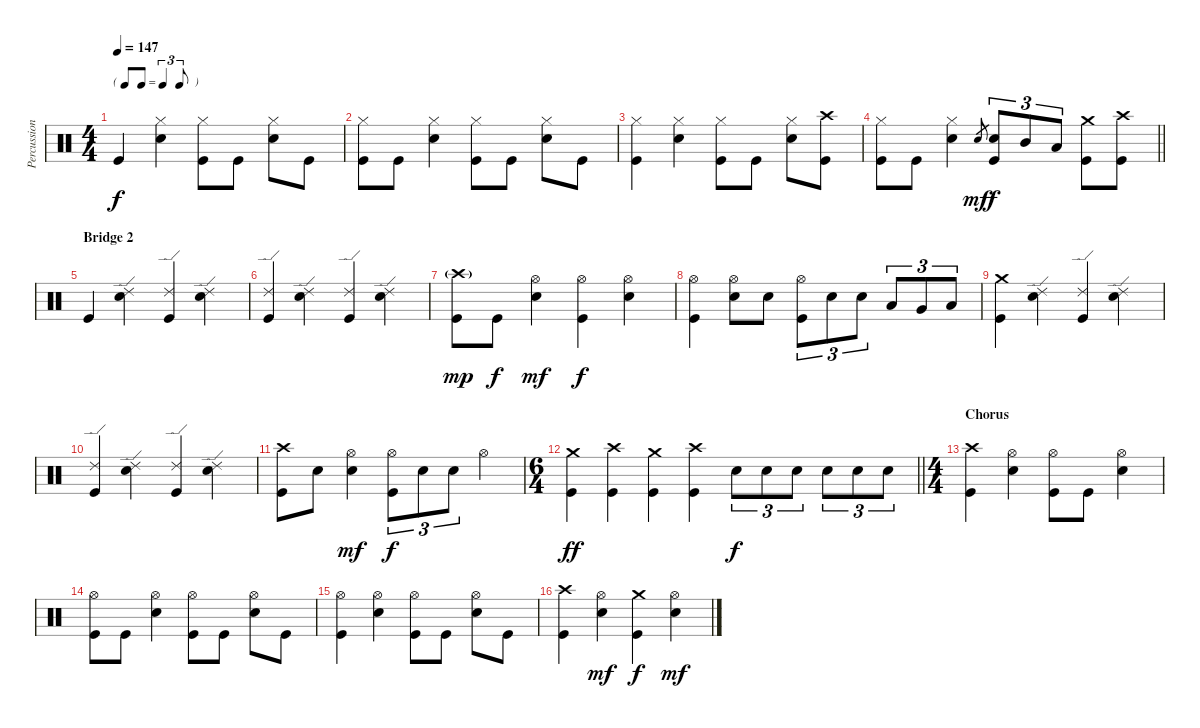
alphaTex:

\track ("Percussion" "Percussion") {instrument percussion}
\staff {score}
\articulation defaults
\ts (4 4)
\tf triplet8th
\tempo 147
\clef neutral
\ks c "Kick (hit)".4{dy f}
("Hi-Hat (closed)" "Snare (hit) 2").4 ("Kick (hit)" "Hi-Hat (closed)").8 "Kick (hit)".8 ("Hi-Hat (closed)" "Snare (hit) 2").8 "Kick (hit)".8 |
("Kick (hit)" "Hi-Hat (closed)").8 "Kick (hit)".8 ("Hi-Hat (closed)" "Snare (hit) 2").4 ("Kick (hit)" "Hi-Hat (closed)").8 "Kick (hit)".8 ("Hi-Hat (closed)" "Snare (hit) 2").8 "Kick (hit)".8 |
("Kick (hit)" "Hi-Hat (closed)").4 ("Hi-Hat (closed)" "Snare (hit) 2").4 ("Kick (hit)" "Hi-Hat (closed)").8 "Kick (hit)".8 ("Hi-Hat (closed)" "Snare (hit) 2").8 ("Kick (hit)" "Crash high (hit)").8 |
\barLineRight lightlight
("Kick (hit)" "Hi-Hat (closed)").8 "Kick (hit)".8 ("Hi-Hat (closed)" "Snare (hit) 2").4 "Snare (hit) 2".8{gr dy mf} ("Kick (hit)" "Snare (hit) 2").8{tu (3 2) dy f} "Mid Tom (hit)".8{tu (3 2)} "Low Tom (hit)".8{tu (3 2)} ("Kick (hit)" "Crash medium (hit)").8 ("Kick (hit)" "Crash high (hit)").8 |
\section ("" "Bridge 2")
"Kick (hit)".4 ("Ride (edge) 2" "Snare (hit) 2").4 ("Kick (hit)" "Ride (edge) 2").4 ("Ride (edge) 2" "Snare (hit) 2").4 |
("Kick (hit)" "Ride (edge) 2").4 ("Ride (edge) 2" "Snare (hit) 2").4 ("Kick (hit)" "Ride (edge) 2").4 ("Ride (edge) 2" "Snare (hit) 2").4 |
("Kick (hit)" "Crash high (hit)"{g}).8{dy mp} "Kick (hit)".8{dy f} ("Hi-Hat (open)" "Snare (hit) 2").4{dy mf} ("Kick (hit)" "Hi-Hat (open)").4{dy f} ("Hi-Hat (open)" "Snare (hit) 2").4 |
("Kick (hit)" "Hi-Hat (open)").4 ("Hi-Hat (open)" "Snare (hit) 2").8 "Snare (hit) 2".8 ("Kick (hit)" "Hi-Hat (open)").8{tu (3 2)} "Snare (hit) 2".8{tu (3 2)} "Snare (hit) 2".8{tu (3 2)} "Low Tom (hit)".8{tu (3 2)} "Very Low Tom (hit)".8{tu (3 2)} "Low Floor Tom (hit)".8{tu (3 2)} |
("Kick (hit)" "Crash medium (hit)").4 ("Ride (edge) 2" "Snare (hit) 2").4 ("Kick (hit)" "Ride (edge) 2").4 ("Ride (edge) 2" "Snare (hit) 2").4 |
("Kick (hit)" "Ride (edge) 2").4 ("Ride (edge) 2" "Snare (hit) 2").4 ("Kick (hit)" "Ride (edge) 2").4 ("Ride (edge) 2" "Snare (hit) 2").4 |
("Kick (hit)" "Crash high (hit)").8 "Snare (hit) 2".8 ("Hi-Hat (open)" "Snare (hit) 2").4{dy mf} ("Kick (hit)" "Hi-Hat (open)").8{tu (3 2) dy f} "Snare (hit) 2".8{tu (3 2)} "Snare (hit) 2".8{tu (3 2)} "Hi-Hat (open)".4 |
\ts (6 4)
\barLineRight lightlight
("Kick (hit)" "Crash medium (hit)").4{dy ff} ("Kick (hit)" "Crash high (hit)").4 ("Kick (hit)" "Crash medium (hit)").4 ("Kick (hit)" "Crash high (hit)").4 "Snare (hit) 2".8{tu (3 2) dy f} "Snare (hit) 2".8{tu (3 2)} "Snare (hit) 2".8{tu (3 2)} "Snare (hit) 2".8{tu (3 2)} "Snare (hit) 2".8{tu (3 2)} "Snare (hit) 2".8{tu (3 2)} |
\ts (4 4)
\section ("" "Chorus")
("Kick (hit)" "Crash high (hit)").4 ("Hi-Hat (open)" "Snare (hit) 2").4 ("Kick (hit)" "Hi-Hat (open)").8 "Kick (hit)".8 ("Hi-Hat (open)" "Snare (hit) 2").4 |
("Kick (hit)" "Hi-Hat (open)").8 "Kick (hit)".8 ("Hi-Hat (open)" "Snare (hit) 2").4 ("Kick (hit)" "Hi-Hat (open)").8 "Kick (hit)".8 ("Hi-Hat (open)" "Snare (hit) 2").8 "Kick (hit)".8 |
("Kick (hit)" "Hi-Hat (open)").4 ("Hi-Hat (open)" "Snare (hit) 2").4 ("Kick (hit)" "Hi-Hat (open)").8 "Kick (hit)".8 ("Hi-Hat (open)" "Snare (hit) 2").8 "Kick (hit)".8 |
("Kick (hit)" "Crash high (hit)").4 ("Hi-Hat (open)" "Snare (hit) 2").4{dy mf} ("Kick (hit)" "Crash medium (hit)").4{dy f} ("Hi-Hat (open)" "Snare (hit) 2").4{dy mf}
